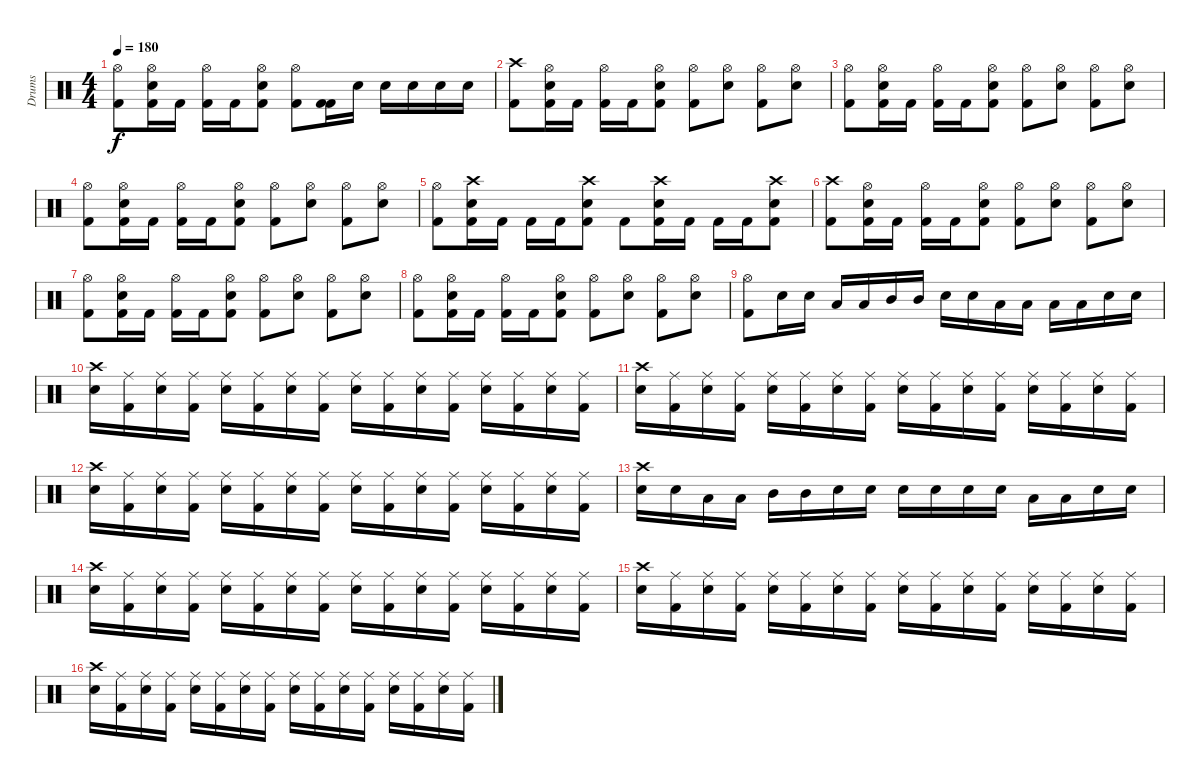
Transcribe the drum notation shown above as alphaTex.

\track ("Drums" "Drums") {instrument percussion}
\staff {score}
\articulation defaults
\ts (4 4)
\tempo 180
\clef neutral
\ks c
("Kick (hit) 2" "Hi-Hat (open)").8{dy f} ("Kick (hit) 2" "Snare (hit) 2" "Hi-Hat (open)").16 "Kick (hit) 2".16 ("Kick (hit) 2" "Hi-Hat (open)").16 "Kick (hit) 2".16 ("Kick (hit) 2" "Snare (hit) 2" "Hi-Hat (open)").8 ("Hi-Hat (open)" "Kick (hit) 2").8 ("Kick (hit) 2" "Kick (hit) 2").16 "Snare (hit) 2".16 "Snare (hit) 2".16 "Snare (hit) 2".16 "Snare (hit) 2".16 "Snare (hit) 2".16 |
("Kick (hit) 2" "Crash high (hit)").8 ("Kick (hit) 2" "Snare (hit) 2" "Hi-Hat (open)").16 "Kick (hit) 2".16 ("Kick (hit) 2" "Hi-Hat (open)").16 "Kick (hit) 2".16 ("Kick (hit) 2" "Snare (hit) 2" "Hi-Hat (open)").8 ("Hi-Hat (open)" "Kick (hit) 2").8 ("Snare (hit) 2" "Hi-Hat (open)").8 ("Hi-Hat (open)" "Kick (hit) 2").8 ("Snare (hit) 2" "Hi-Hat (open)").8 |
("Kick (hit) 2" "Hi-Hat (open)").8 ("Kick (hit) 2" "Snare (hit) 2" "Hi-Hat (open)").16 "Kick (hit) 2".16 ("Kick (hit) 2" "Hi-Hat (open)").16 "Kick (hit) 2".16 ("Kick (hit) 2" "Snare (hit) 2" "Hi-Hat (open)").8 ("Hi-Hat (open)" "Kick (hit) 2").8 ("Snare (hit) 2" "Hi-Hat (open)").8 ("Hi-Hat (open)" "Kick (hit) 2").8 ("Snare (hit) 2" "Hi-Hat (open)").8 |
("Kick (hit) 2" "Hi-Hat (open)").8 ("Kick (hit) 2" "Snare (hit) 2" "Hi-Hat (open)").16 "Kick (hit) 2".16 ("Kick (hit) 2" "Hi-Hat (open)").16 "Kick (hit) 2".16 ("Kick (hit) 2" "Snare (hit) 2" "Hi-Hat (open)").8 ("Hi-Hat (open)" "Kick (hit) 2").8 ("Snare (hit) 2" "Hi-Hat (open)").8 ("Hi-Hat (open)" "Kick (hit) 2").8 ("Snare (hit) 2" "Hi-Hat (open)").8 |
("Kick (hit) 2" "Hi-Hat (open)").8 ("Kick (hit) 2" "Snare (hit) 2" "Crash high (hit)").16 "Kick (hit) 2".16 "Kick (hit) 2".16 "Kick (hit) 2".16 ("Kick (hit) 2" "Snare (hit) 2" "Crash high (hit)").8 "Kick (hit) 2".8 ("Kick (hit) 2" "Snare (hit) 2" "Crash high (hit)").16 "Kick (hit) 2".16 "Kick (hit) 2".16 "Kick (hit) 2".16 ("Crash high (hit)" "Kick (hit) 2" "Snare (hit) 2").8 |
("Kick (hit) 2" "Crash high (hit)").8 ("Kick (hit) 2" "Snare (hit) 2" "Hi-Hat (open)").16 "Kick (hit) 2".16 ("Kick (hit) 2" "Hi-Hat (open)").16 "Kick (hit) 2".16 ("Kick (hit) 2" "Snare (hit) 2" "Hi-Hat (open)").8 ("Hi-Hat (open)" "Kick (hit) 2").8 ("Snare (hit) 2" "Hi-Hat (open)").8 ("Hi-Hat (open)" "Kick (hit) 2").8 ("Snare (hit) 2" "Hi-Hat (open)").8 |
("Kick (hit) 2" "Hi-Hat (open)").8 ("Kick (hit) 2" "Snare (hit) 2" "Hi-Hat (open)").16 "Kick (hit) 2".16 ("Kick (hit) 2" "Hi-Hat (open)").16 "Kick (hit) 2".16 ("Kick (hit) 2" "Snare (hit) 2" "Hi-Hat (open)").8 ("Hi-Hat (open)" "Kick (hit) 2").8 ("Snare (hit) 2" "Hi-Hat (open)").8 ("Hi-Hat (open)" "Kick (hit) 2").8 ("Snare (hit) 2" "Hi-Hat (open)").8 |
("Kick (hit) 2" "Hi-Hat (open)").8 ("Kick (hit) 2" "Snare (hit) 2" "Hi-Hat (open)").16 "Kick (hit) 2".16 ("Kick (hit) 2" "Hi-Hat (open)").16 "Kick (hit) 2".16 ("Kick (hit) 2" "Snare (hit) 2" "Hi-Hat (open)").8 ("Hi-Hat (open)" "Kick (hit) 2").8 ("Snare (hit) 2" "Hi-Hat (open)").8 ("Hi-Hat (open)" "Kick (hit) 2").8 ("Snare (hit) 2" "Hi-Hat (open)").8 |
("Hi-Hat (open)" "Kick (hit) 2").8 "Snare (hit) 2".16 "Snare (hit) 2".16 "Low Tom (hit)".16 "Low Tom (hit)".16 "Mid Tom (hit)".16 "Mid Tom (hit)".16 "Snare (hit) 2".16 "Snare (hit) 2".16 "Low Tom (hit)".16 "Low Tom (hit)".16 "Low Tom (hit)".16 "Low Tom (hit)".16 "Snare (hit) 2".16 "Snare (hit) 2".16 |
("Crash high (hit)" "Snare (hit) 2").16 ("Ride (middle)" "Kick (hit) 2").16 ("Ride (middle)" "Snare (hit) 2").16 ("Ride (middle)" "Kick (hit) 2").16 ("Ride (middle)" "Snare (hit) 2").16 ("Ride (middle)" "Kick (hit) 2").16 ("Ride (middle)" "Snare (hit) 2").16 ("Ride (middle)" "Kick (hit) 2").16 ("Ride (middle)" "Snare (hit) 2").16 ("Ride (middle)" "Kick (hit) 2").16 ("Ride (middle)" "Snare (hit) 2").16 ("Ride (middle)" "Kick (hit) 2").16 ("Ride (middle)" "Snare (hit) 2").16 ("Ride (middle)" "Kick (hit) 2").16 ("Ride (middle)" "Snare (hit) 2").16 ("Ride (middle)" "Kick (hit) 2").16 |
("Crash high (hit)" "Snare (hit) 2").16 ("Ride (middle)" "Kick (hit) 2").16 ("Ride (middle)" "Snare (hit) 2").16 ("Ride (middle)" "Kick (hit) 2").16 ("Ride (middle)" "Snare (hit) 2").16 ("Ride (middle)" "Kick (hit) 2").16 ("Ride (middle)" "Snare (hit) 2").16 ("Ride (middle)" "Kick (hit) 2").16 ("Ride (middle)" "Snare (hit) 2").16 ("Ride (middle)" "Kick (hit) 2").16 ("Ride (middle)" "Snare (hit) 2").16 ("Ride (middle)" "Kick (hit) 2").16 ("Ride (middle)" "Snare (hit) 2").16 ("Ride (middle)" "Kick (hit) 2").16 ("Ride (middle)" "Snare (hit) 2").16 ("Ride (middle)" "Kick (hit) 2").16 |
("Crash high (hit)" "Snare (hit) 2").16 ("Ride (middle)" "Kick (hit) 2").16 ("Ride (middle)" "Snare (hit) 2").16 ("Ride (middle)" "Kick (hit) 2").16 ("Ride (middle)" "Snare (hit) 2").16 ("Ride (middle)" "Kick (hit) 2").16 ("Ride (middle)" "Snare (hit) 2").16 ("Ride (middle)" "Kick (hit) 2").16 ("Ride (middle)" "Snare (hit) 2").16 ("Ride (middle)" "Kick (hit) 2").16 ("Ride (middle)" "Snare (hit) 2").16 ("Ride (middle)" "Kick (hit) 2").16 ("Ride (middle)" "Snare (hit) 2").16 ("Ride (middle)" "Kick (hit) 2").16 ("Ride (middle)" "Snare (hit) 2").16 ("Ride (middle)" "Kick (hit) 2").16 |
("Snare (hit) 2" "Crash high (hit)").16 "Snare (hit) 2".16 "Low Tom (hit)".16 "Low Tom (hit)".16 "Mid Tom (hit)".16 "Mid Tom (hit)".16 "Snare (hit) 2".16 "Snare (hit) 2".16 "Snare (hit) 2".16 "Snare (hit) 2".16 "Snare (hit) 2".16 "Snare (hit) 2".16 "Low Tom (hit)".16 "Low Tom (hit)".16 "Snare (hit) 2".16 "Snare (hit) 2".16 |
("Crash high (hit)" "Snare (hit) 2").16 ("Ride (middle)" "Kick (hit) 2").16 ("Ride (middle)" "Snare (hit) 2").16 ("Ride (middle)" "Kick (hit) 2").16 ("Ride (middle)" "Snare (hit) 2").16 ("Ride (middle)" "Kick (hit) 2").16 ("Ride (middle)" "Snare (hit) 2").16 ("Ride (middle)" "Kick (hit) 2").16 ("Ride (middle)" "Snare (hit) 2").16 ("Ride (middle)" "Kick (hit) 2").16 ("Ride (middle)" "Snare (hit) 2").16 ("Ride (middle)" "Kick (hit) 2").16 ("Ride (middle)" "Snare (hit) 2").16 ("Ride (middle)" "Kick (hit) 2").16 ("Ride (middle)" "Snare (hit) 2").16 ("Ride (middle)" "Kick (hit) 2").16 |
("Crash high (hit)" "Snare (hit) 2").16 ("Ride (middle)" "Kick (hit) 2").16 ("Ride (middle)" "Snare (hit) 2").16 ("Ride (middle)" "Kick (hit) 2").16 ("Ride (middle)" "Snare (hit) 2").16 ("Ride (middle)" "Kick (hit) 2").16 ("Ride (middle)" "Snare (hit) 2").16 ("Ride (middle)" "Kick (hit) 2").16 ("Ride (middle)" "Snare (hit) 2").16 ("Ride (middle)" "Kick (hit) 2").16 ("Ride (middle)" "Snare (hit) 2").16 ("Ride (middle)" "Kick (hit) 2").16 ("Ride (middle)" "Snare (hit) 2").16 ("Ride (middle)" "Kick (hit) 2").16 ("Ride (middle)" "Snare (hit) 2").16 ("Ride (middle)" "Kick (hit) 2").16 |
("Crash high (hit)" "Snare (hit) 2").16 ("Ride (middle)" "Kick (hit) 2").16 ("Ride (middle)" "Snare (hit) 2").16 ("Ride (middle)" "Kick (hit) 2").16 ("Ride (middle)" "Snare (hit) 2").16 ("Ride (middle)" "Kick (hit) 2").16 ("Ride (middle)" "Snare (hit) 2").16 ("Ride (middle)" "Kick (hit) 2").16 ("Ride (middle)" "Snare (hit) 2").16 ("Ride (middle)" "Kick (hit) 2").16 ("Ride (middle)" "Snare (hit) 2").16 ("Ride (middle)" "Kick (hit) 2").16 ("Ride (middle)" "Snare (hit) 2").16 ("Ride (middle)" "Kick (hit) 2").16 ("Ride (middle)" "Snare (hit) 2").16 ("Ride (middle)" "Kick (hit) 2").16
